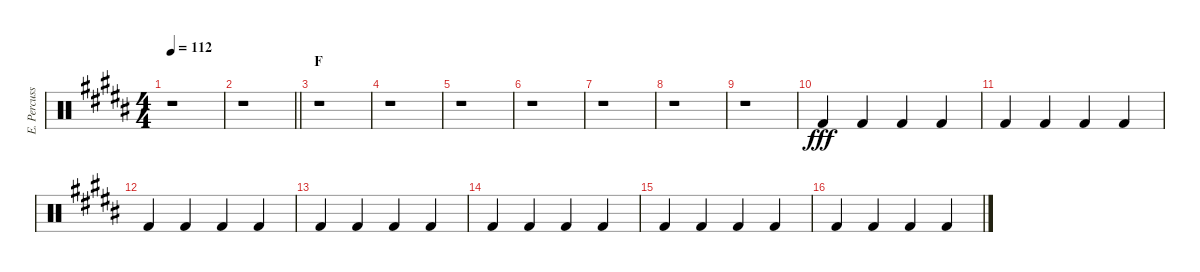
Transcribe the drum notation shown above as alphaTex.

\track ("E. Percussion" "E. Percuss") {instrument percussion}
\staff {score}
\articulation defaults
\ts (4 4)
\tempo 112
\clef neutral
\ks b
r.1{dy fff} |
\barLineRight lightlight
r.1 |
\section ("" "F")
r.1 |
r.1 |
r.1 |
r.1 |
r.1 |
r.1 |
r.1 |
"Kick (hit) 2".4 "Kick (hit) 2".4 "Kick (hit) 2".4 "Kick (hit) 2".4 |
"Kick (hit) 2".4 "Kick (hit) 2".4 "Kick (hit) 2".4 "Kick (hit) 2".4 |
"Kick (hit) 2".4 "Kick (hit) 2".4 "Kick (hit) 2".4 "Kick (hit) 2".4 |
"Kick (hit) 2".4 "Kick (hit) 2".4 "Kick (hit) 2".4 "Kick (hit) 2".4 |
"Kick (hit) 2".4 "Kick (hit) 2".4 "Kick (hit) 2".4 "Kick (hit) 2".4 |
"Kick (hit) 2".4 "Kick (hit) 2".4 "Kick (hit) 2".4 "Kick (hit) 2".4 |
"Kick (hit) 2".4 "Kick (hit) 2".4 "Kick (hit) 2".4 "Kick (hit) 2".4
